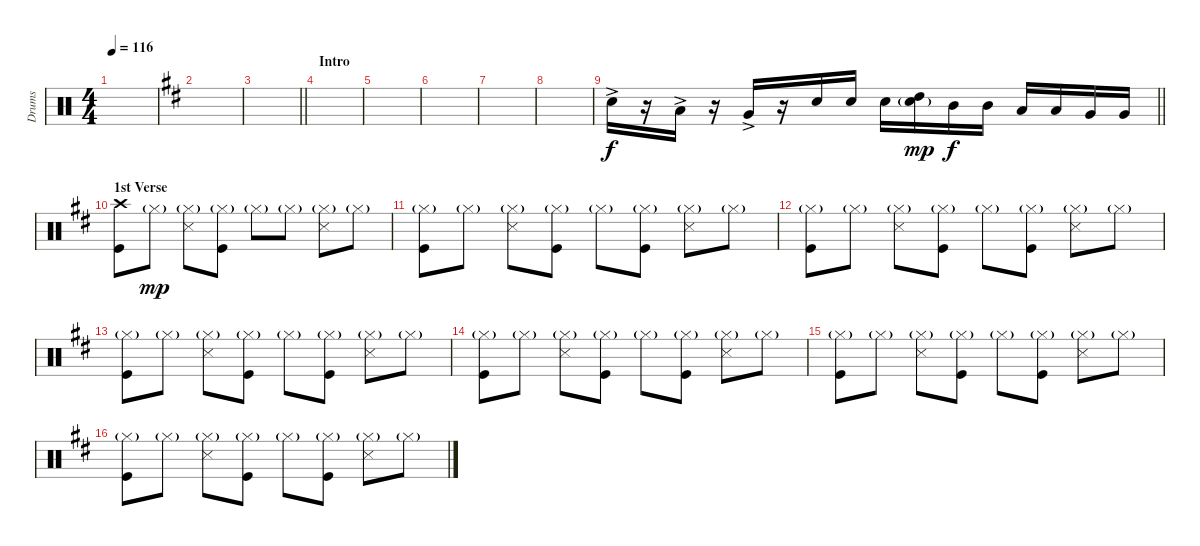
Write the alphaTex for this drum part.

\track ("Drums" "Drums") {instrument percussion}
\staff {score}
\articulation defaults
\ts (4 4)
\tempo 116
\clef neutral
\ks c
|
\ks d
|
\barLineRight lightlight
|
\section ("" "Intro")
|
|
|
|
|
\barLineRight lightlight "Snare (hit) 2"{ac}.16
r.16 "Low Tom (hit)"{ac}.16 r.16 "Very Low Tom (hit)"{ac}.16 r.16 "Snare (hit) 2".16{dy f} "Snare (hit) 2".16 "Snare (hit) 2".16 ("High Tom (hit)" "Snare (hit) 2"{g}).16{dy mp} "Mid Tom (hit)".16{dy f} "Mid Tom (hit)".16 "Low Tom (hit)".16 "Low Tom (hit)".16 "Very Low Tom (hit)".16 "Very Low Tom (hit)".16 |
\section ("" "1st Verse")
("Crash high (hit)" "Kick (hit)").8 "Hi-Hat (closed)"{g}.8{dy mp} ("Hi-Hat (closed)"{g} "Snare (side stick) 3").8 ("Hi-Hat (closed)"{g} "Kick (hit)").8 "Hi-Hat (closed)"{g}.8 "Hi-Hat (closed)"{g}.8 ("Hi-Hat (closed)"{g} "Snare (side stick) 3").8 "Hi-Hat (closed)"{g}.8 |
("Hi-Hat (closed)"{g} "Kick (hit)").8 "Hi-Hat (closed)"{g}.8 ("Hi-Hat (closed)"{g} "Snare (side stick) 3").8 ("Hi-Hat (closed)"{g} "Kick (hit)").8 "Hi-Hat (closed)"{g}.8 ("Hi-Hat (closed)"{g} "Kick (hit)").8 ("Hi-Hat (closed)"{g} "Snare (side stick) 3").8 "Hi-Hat (closed)"{g}.8 |
("Hi-Hat (closed)"{g} "Kick (hit)").8 "Hi-Hat (closed)"{g}.8 ("Hi-Hat (closed)"{g} "Snare (side stick) 3").8 ("Hi-Hat (closed)"{g} "Kick (hit)").8 "Hi-Hat (closed)"{g}.8 ("Hi-Hat (closed)"{g} "Kick (hit)").8 ("Hi-Hat (closed)"{g} "Snare (side stick) 3").8 "Hi-Hat (closed)"{g}.8 |
("Hi-Hat (closed)"{g} "Kick (hit)").8 "Hi-Hat (closed)"{g}.8 ("Hi-Hat (closed)"{g} "Snare (side stick) 3").8 ("Hi-Hat (closed)"{g} "Kick (hit)").8 "Hi-Hat (closed)"{g}.8 ("Hi-Hat (closed)"{g} "Kick (hit)").8 ("Hi-Hat (closed)"{g} "Snare (side stick) 3").8 "Hi-Hat (closed)"{g}.8 |
("Hi-Hat (closed)"{g} "Kick (hit)").8 "Hi-Hat (closed)"{g}.8 ("Hi-Hat (closed)"{g} "Snare (side stick) 3").8 ("Hi-Hat (closed)"{g} "Kick (hit)").8 "Hi-Hat (closed)"{g}.8 ("Hi-Hat (closed)"{g} "Kick (hit)").8 ("Hi-Hat (closed)"{g} "Snare (side stick) 3").8 "Hi-Hat (closed)"{g}.8 |
("Hi-Hat (closed)"{g} "Kick (hit)").8 "Hi-Hat (closed)"{g}.8 ("Hi-Hat (closed)"{g} "Snare (side stick) 3").8 ("Hi-Hat (closed)"{g} "Kick (hit)").8 "Hi-Hat (closed)"{g}.8 ("Hi-Hat (closed)"{g} "Kick (hit)").8 ("Hi-Hat (closed)"{g} "Snare (side stick) 3").8 "Hi-Hat (closed)"{g}.8 |
("Hi-Hat (closed)"{g} "Kick (hit)").8 "Hi-Hat (closed)"{g}.8 ("Hi-Hat (closed)"{g} "Snare (side stick) 3").8 ("Hi-Hat (closed)"{g} "Kick (hit)").8 "Hi-Hat (closed)"{g}.8 ("Hi-Hat (closed)"{g} "Kick (hit)").8 ("Hi-Hat (closed)"{g} "Snare (side stick) 3").8 "Hi-Hat (closed)"{g}.8
